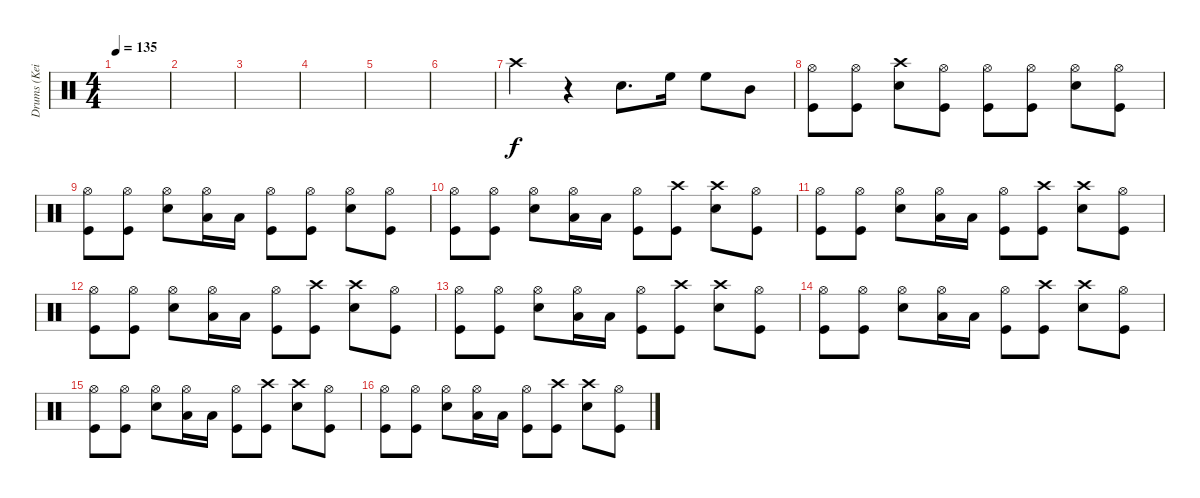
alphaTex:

\track ("Drums (Keith)" "Drums (Kei") {instrument percussion}
\staff {score}
\articulation defaults
\ts (4 4)
\tempo 135
\clef neutral
\ks c
|
|
|
|
|
|
"Crash high (hit)".4 r.4 "Snare (hit) 2".8{d} "High Floor Tom (hit)".16 "High Floor Tom (hit)".8 "Mid Tom (hit)".8 |
("Hi-Hat (open)" "Kick (hit)").8 ("Hi-Hat (open)" "Kick (hit)").8 ("Crash high (hit)" "Snare (hit) 2").8 ("Hi-Hat (open)" "Kick (hit)").8 ("Hi-Hat (open)" "Kick (hit)").8 ("Hi-Hat (open)" "Kick (hit)").8 ("Hi-Hat (open)" "Snare (hit) 2").8 ("Hi-Hat (open)" "Kick (hit)").8 |
("Hi-Hat (open)" "Kick (hit)").8 ("Hi-Hat (open)" "Kick (hit)").8 ("Hi-Hat (open)" "Snare (hit) 2").8 ("Hi-Hat (open)" "Low Tom (hit)").16 "Low Tom (hit)".16 ("Hi-Hat (open)" "Kick (hit)").8 ("Hi-Hat (open)" "Kick (hit)").8 ("Hi-Hat (open)" "Snare (hit) 2").8 ("Hi-Hat (open)" "Kick (hit)").8 |
("Hi-Hat (open)" "Kick (hit)").8 ("Hi-Hat (open)" "Kick (hit)").8 ("Hi-Hat (open)" "Snare (hit) 2").8 ("Hi-Hat (open)" "Low Tom (hit)").16 "Low Tom (hit)".16 ("Hi-Hat (open)" "Kick (hit)").8 ("Crash high (hit)" "Kick (hit)").8 ("Crash high (hit)" "Snare (hit) 2").8 ("Hi-Hat (open)" "Kick (hit)").8 |
("Hi-Hat (open)" "Kick (hit)").8 ("Hi-Hat (open)" "Kick (hit)").8 ("Hi-Hat (open)" "Snare (hit) 2").8 ("Hi-Hat (open)" "Low Tom (hit)").16 "Low Tom (hit)".16 ("Hi-Hat (open)" "Kick (hit)").8 ("Crash high (hit)" "Kick (hit)").8 ("Crash high (hit)" "Snare (hit) 2").8 ("Hi-Hat (open)" "Kick (hit)").8 |
("Hi-Hat (open)" "Kick (hit)").8 ("Hi-Hat (open)" "Kick (hit)").8 ("Hi-Hat (open)" "Snare (hit) 2").8 ("Hi-Hat (open)" "Low Tom (hit)").16 "Low Tom (hit)".16 ("Hi-Hat (open)" "Kick (hit)").8 ("Crash high (hit)" "Kick (hit)").8 ("Crash high (hit)" "Snare (hit) 2").8 ("Hi-Hat (open)" "Kick (hit)").8 |
("Hi-Hat (open)" "Kick (hit)").8 ("Hi-Hat (open)" "Kick (hit)").8 ("Hi-Hat (open)" "Snare (hit) 2").8 ("Hi-Hat (open)" "Low Tom (hit)").16 "Low Tom (hit)".16 ("Hi-Hat (open)" "Kick (hit)").8 ("Crash high (hit)" "Kick (hit)").8 ("Crash high (hit)" "Snare (hit) 2").8 ("Hi-Hat (open)" "Kick (hit)").8 |
("Hi-Hat (open)" "Kick (hit)").8 ("Hi-Hat (open)" "Kick (hit)").8 ("Hi-Hat (open)" "Snare (hit) 2").8 ("Hi-Hat (open)" "Low Tom (hit)").16 "Low Tom (hit)".16 ("Hi-Hat (open)" "Kick (hit)").8 ("Crash high (hit)" "Kick (hit)").8 ("Crash high (hit)" "Snare (hit) 2").8 ("Hi-Hat (open)" "Kick (hit)").8 |
("Hi-Hat (open)" "Kick (hit)").8 ("Hi-Hat (open)" "Kick (hit)").8 ("Hi-Hat (open)" "Snare (hit) 2").8 ("Hi-Hat (open)" "Low Tom (hit)").16 "Low Tom (hit)".16 ("Hi-Hat (open)" "Kick (hit)").8 ("Crash high (hit)" "Kick (hit)").8 ("Crash high (hit)" "Snare (hit) 2").8 ("Hi-Hat (open)" "Kick (hit)").8 |
("Hi-Hat (open)" "Kick (hit)").8 ("Hi-Hat (open)" "Kick (hit)").8 ("Hi-Hat (open)" "Snare (hit) 2").8 ("Hi-Hat (open)" "Low Tom (hit)").16 "Low Tom (hit)".16 ("Hi-Hat (open)" "Kick (hit)").8 ("Crash high (hit)" "Kick (hit)").8 ("Crash high (hit)" "Snare (hit) 2").8 ("Hi-Hat (open)" "Kick (hit)").8
